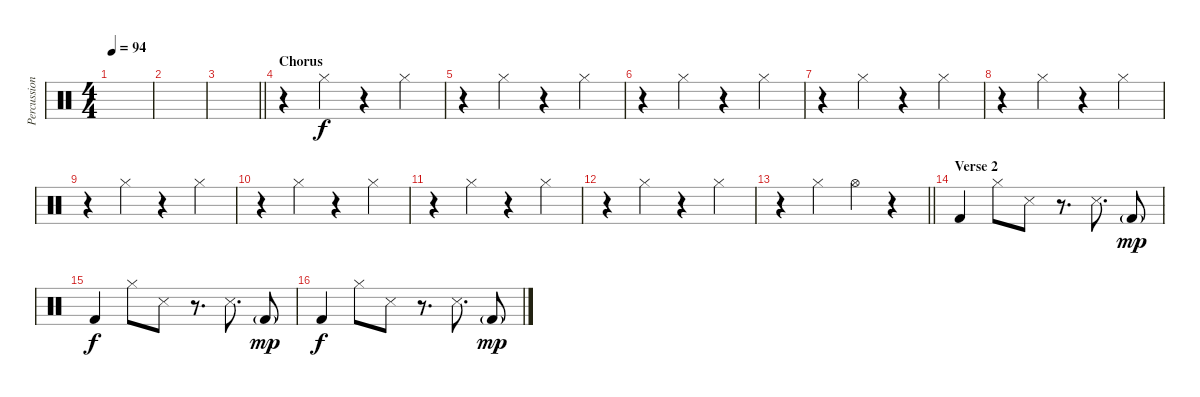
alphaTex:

\track ("Percussion" "Percussion") {instrument percussion}
\staff {score}
\articulation defaults
\ts (4 4)
\tempo 94
\clef neutral
\ks c
|
|
\barLineRight lightlight
|
\section ("" "Chorus")
r.4 "Hi-Hat (closed)".4 r.4 "Hi-Hat (closed)".4 |
r.4 "Hi-Hat (closed)".4 r.4 "Hi-Hat (closed)".4 |
r.4 "Hi-Hat (closed)".4 r.4 "Hi-Hat (closed)".4 |
r.4 "Hi-Hat (closed)".4 r.4 "Hi-Hat (closed)".4 |
r.4 "Hi-Hat (closed)".4 r.4 "Hi-Hat (closed)".4 |
r.4 "Hi-Hat (closed)".4 r.4 "Hi-Hat (closed)".4 |
r.4 "Hi-Hat (closed)".4 r.4 "Hi-Hat (closed)".4 |
r.4 "Hi-Hat (closed)".4 r.4 "Hi-Hat (closed)".4 |
r.4 "Hi-Hat (closed)".4 r.4 "Hi-Hat (closed)".4 |
\barLineRight lightlight
r.4 "Hi-Hat (closed)".4 "Hi-Hat (open)".4 r.4 |
\section ("" "Verse 2")
"Kick (hit) 2".4 "Hi-Hat (closed)".8 "Snare (side stick) 3".8 r.8{d} "Snare (side stick) 3".8{d} "Kick (hit) 2"{g}.8{dy mp} |
"Kick (hit) 2".4{dy f} "Hi-Hat (closed)".8 "Snare (side stick) 3".8 r.8{d} "Snare (side stick) 3".8{d} "Kick (hit) 2"{g}.8{dy mp} |
"Kick (hit) 2".4{dy f} "Hi-Hat (closed)".8 "Snare (side stick) 3".8 r.8{d} "Snare (side stick) 3".8{d} "Kick (hit) 2"{g}.8{dy mp}
